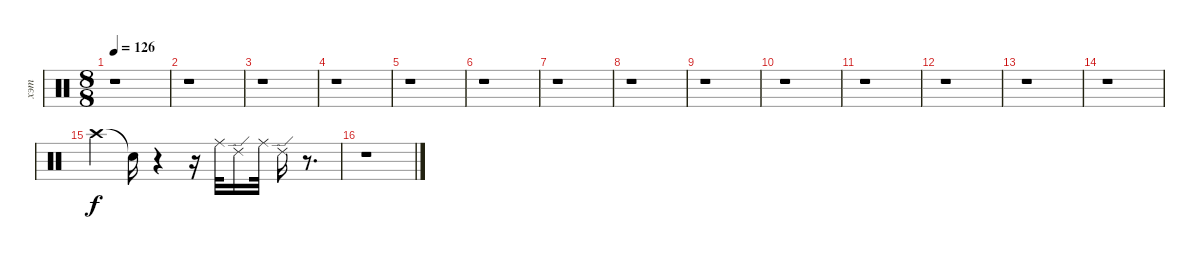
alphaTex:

\track ("хэт" "хэт") {instrument percussion}
\staff {score}
\articulation defaults
\ts (8 8)
\tempo 126
\clef neutral
\ks c
r.1{dy f} |
r.1 |
r.1 |
r.1 |
r.1 |
r.1 |
r.1 |
r.1 |
r.1 |
r.1 |
r.1 |
r.1 |
r.1 |
r.1 |
"Crash high (hit)".4 "Snare (hit)"{t}.16 r.4 r.16 "Ride (middle)".32 "Ride (edge) 2".16 "Ride (middle)".32 "Ride (edge) 2".16 r.8{d} |
r.1
